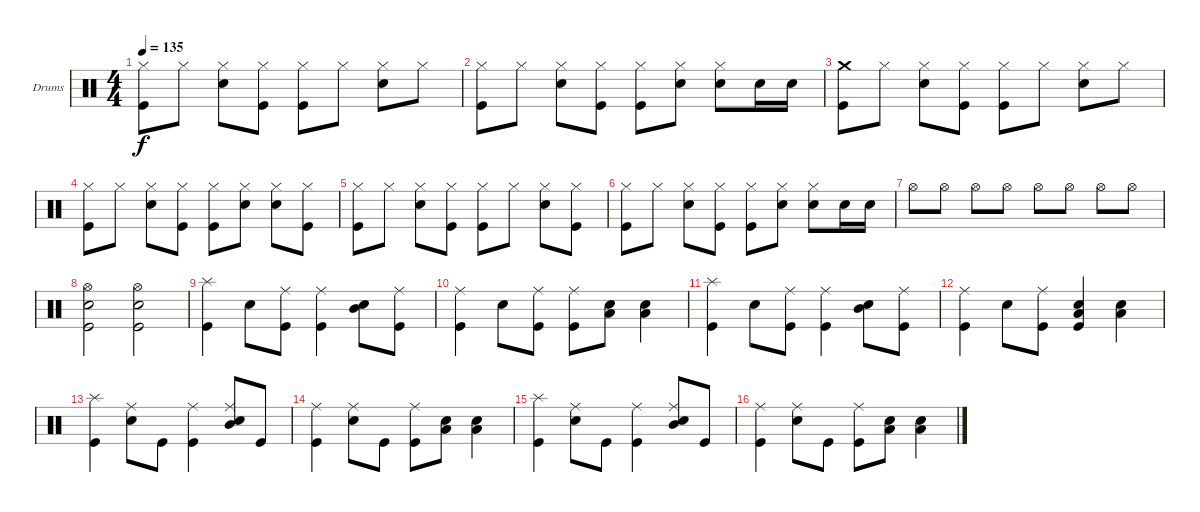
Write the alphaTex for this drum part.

\defaultSystemsLayout 4
\bracketExtendMode groupsimilarinstruments
\firstSystemTrackNameOrientation horizontal
\otherSystemsTrackNameOrientation horizontal
\track ("Барабаны" "Drums") {instrument percussion}
\staff {score}
\articulation defaults
\ts (4 4)
\tempo 135
\clef neutral
\scale
0.333333
\ks c
("Hi-Hat (closed)" "Kick (hit)").8{dy f} "Hi-Hat (closed)".8 ("Hi-Hat (closed)" "Snare (hit) 2").8 ("Hi-Hat (closed)" "Kick (hit)").8 ("Hi-Hat (closed)" "Kick (hit)").8 "Hi-Hat (closed)".8 ("Hi-Hat (closed)" "Snare (hit) 2").8 "Hi-Hat (closed)".8 |
\scale
0.333333 ("Hi-Hat (closed)" "Kick (hit)").8 "Hi-Hat (closed)".8 ("Hi-Hat (closed)" "Snare (hit) 2").8 ("Hi-Hat (closed)" "Kick (hit)").8 ("Hi-Hat (closed)" "Kick (hit)").8 ("Hi-Hat (closed)" "Snare (hit) 2").8 ("Hi-Hat (closed)" "Snare (hit) 2").8 "Snare (hit) 2".16 "Snare (hit) 2".16 |
\scale
0.333333 ("Crash medium (hit)" "Kick (hit)").8 "Hi-Hat (closed)".8 ("Hi-Hat (closed)" "Snare (hit) 2").8 ("Hi-Hat (closed)" "Kick (hit)").8 ("Hi-Hat (closed)" "Kick (hit)").8 "Hi-Hat (closed)".8 ("Hi-Hat (closed)" "Snare (hit) 2").8 "Hi-Hat (closed)".8 |
\scale
0.333333 ("Hi-Hat (closed)" "Kick (hit)").8 "Hi-Hat (closed)".8 ("Hi-Hat (closed)" "Snare (hit) 2").8 ("Hi-Hat (closed)" "Kick (hit)").8 ("Hi-Hat (closed)" "Kick (hit)").8 ("Hi-Hat (closed)" "Snare (hit) 2").8 ("Hi-Hat (closed)" "Snare (hit) 2").8 ("Hi-Hat (closed)" "Kick (hit)").8 |
\scale
0.333333 ("Hi-Hat (closed)" "Kick (hit)").8 "Hi-Hat (closed)".8 ("Hi-Hat (closed)" "Snare (hit) 2").8 ("Hi-Hat (closed)" "Kick (hit)").8 ("Hi-Hat (closed)" "Kick (hit)").8 "Hi-Hat (closed)".8 ("Hi-Hat (closed)" "Snare (hit) 2").8 ("Hi-Hat (closed)" "Kick (hit)").8 |
\scale
0.333333 ("Hi-Hat (closed)" "Kick (hit)").8 "Hi-Hat (closed)".8 ("Hi-Hat (closed)" "Snare (hit) 2").8 ("Hi-Hat (closed)" "Kick (hit)").8 ("Hi-Hat (closed)" "Kick (hit)").8 ("Hi-Hat (closed)" "Snare (hit) 2").8 ("Hi-Hat (closed)" "Snare (hit) 2").8 "Snare (hit) 2".16 "Snare (hit) 2".16 |
\scale
0.333333 "Hi-Hat (open)".8 "Hi-Hat (open)".8 "Hi-Hat (open)".8 "Hi-Hat (open)".8 "Hi-Hat (open)".8 "Hi-Hat (open)".8 "Hi-Hat (open)".8 "Hi-Hat (open)".8 |
\scale
0.333333 ("Hi-Hat (open)" "Snare (hit) 2" "Kick (hit)").2 ("Hi-Hat (open)" "Snare (hit) 2" "Kick (hit)").2 |
\scale
0.333333 ("Splash (hit)" "Kick (hit)").4 "Snare (hit) 2".8 ("Ride (middle)" "Kick (hit)").8 ("Ride (middle)" "Kick (hit)").4 ("Mid Tom (hit)" "Snare (hit) 2").8 ("Ride (middle)" "Kick (hit)").8 |
\scale
0.333333 ("Ride (middle)" "Kick (hit)").4 "Snare (hit) 2".8 ("Ride (middle)" "Kick (hit)").8 ("Ride (middle)" "Kick (hit)").8 ("Low Tom (hit)" "Snare (hit) 2").8 ("Low Tom (hit)" "Snare (hit) 2").4 |
\scale
0.333333 ("Splash (hit)" "Kick (hit)").4 "Snare (hit) 2".8 ("Ride (middle)" "Kick (hit)").8 ("Ride (middle)" "Kick (hit)").4 ("Mid Tom (hit)" "Snare (hit) 2").8 ("Ride (middle)" "Kick (hit)").8 |
\scale
0.333333 ("Ride (middle)" "Kick (hit)").4 "Snare (hit) 2".8 ("Ride (middle)" "Kick (hit)").8 ("Low Tom (hit)" "Snare (hit) 2" "Kick (hit)").4 ("Low Tom (hit)" "Snare (hit) 2").4 |
\scale
0.333333 ("Splash (hit)" "Kick (hit)").4 ("Ride (middle)" "Snare (hit) 2").8 "Kick (hit)".8 ("Ride (middle)" "Kick (hit)").4 ("Ride (middle)" "Mid Tom (hit)" "Snare (hit) 2").8 "Kick (hit)".8 |
\scale
0.333333 ("Ride (middle)" "Kick (hit)").4 ("Ride (middle)" "Snare (hit) 2").8 "Kick (hit)".8 ("Ride (middle)" "Kick (hit)").8 ("Low Tom (hit)" "Snare (hit) 2").8 ("Low Tom (hit)" "Snare (hit) 2").4 |
\scale
0.333333 ("Splash (hit)" "Kick (hit)").4 ("Ride (middle)" "Snare (hit) 2").8 "Kick (hit)".8 ("Ride (middle)" "Kick (hit)").4 ("Ride (middle)" "Mid Tom (hit)" "Snare (hit) 2").8 "Kick (hit)".8 |
\scale
0.333333 ("Ride (middle)" "Kick (hit)").4 ("Ride (middle)" "Snare (hit) 2").8 "Kick (hit)".8 ("Ride (middle)" "Kick (hit)").8 ("Low Tom (hit)" "Snare (hit) 2").8 ("Low Tom (hit)" "Snare (hit) 2").4
